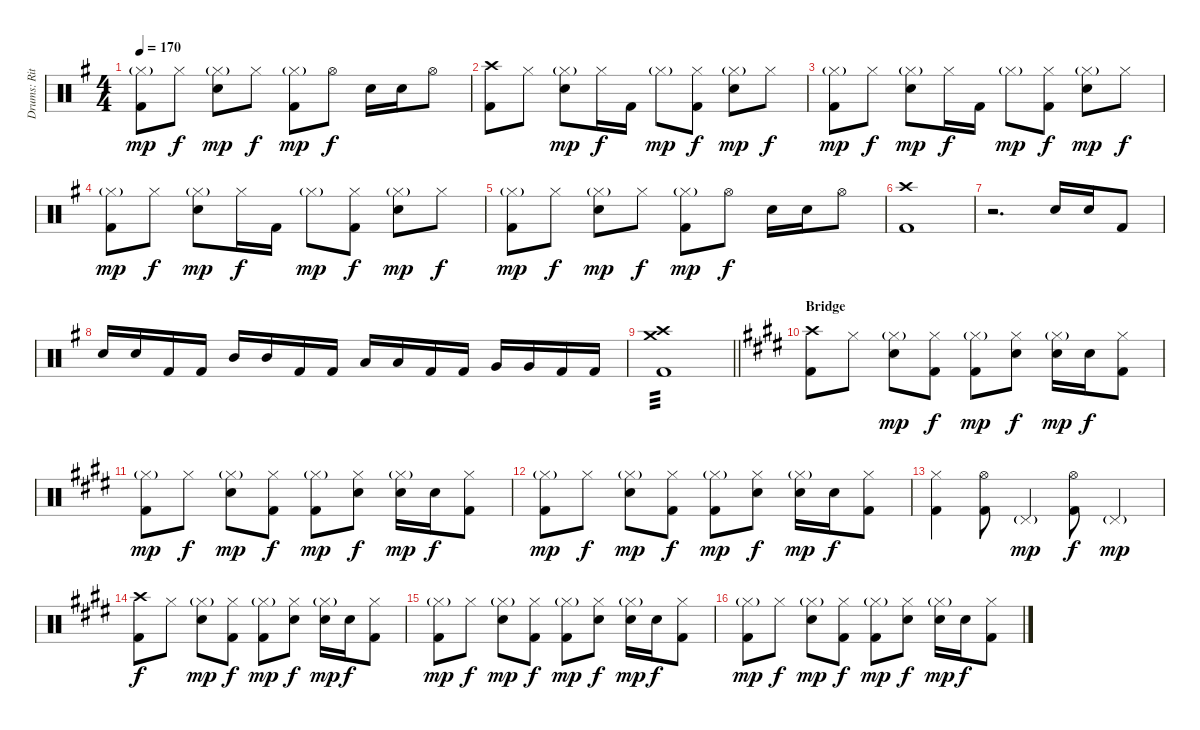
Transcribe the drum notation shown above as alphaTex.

\track ("Drums: Ritsu Tainaka" "Drums: Rit") {instrument percussion}
\staff {score}
\articulation defaults
\ts (4 4)
\tempo 170
\clef neutral
\ks eminor
("Hi-Hat (closed)"{g} "Kick (hit) 2").8{dy mp} "Hi-Hat (closed)".8{dy f} ("Hi-Hat (closed)"{g} "Electric Snare (hit)").8{dy mp} "Hi-Hat (closed)".8{dy f} ("Hi-Hat (closed)"{g} "Kick (hit) 2").8{dy mp} "Hi-Hat (open)".8{dy f} "Electric Snare (hit)".16 "Electric Snare (hit)".16 "Hi-Hat (open)".8 |
("Crash high (hit)" "Kick (hit) 2").8 "Hi-Hat (closed)".8 ("Hi-Hat (closed)"{g} "Electric Snare (hit)").8{dy mp} "Hi-Hat (closed)".16{dy f} "Kick (hit) 2".16 "Hi-Hat (closed)"{g}.8{dy mp} ("Hi-Hat (closed)" "Kick (hit) 2").8{dy f} ("Hi-Hat (closed)"{g} "Electric Snare (hit)").8{dy mp} "Hi-Hat (closed)".8{dy f} |
("Hi-Hat (closed)"{g} "Kick (hit) 2").8{dy mp} "Hi-Hat (closed)".8{dy f} ("Hi-Hat (closed)"{g} "Electric Snare (hit)").8{dy mp} "Hi-Hat (closed)".16{dy f} "Kick (hit) 2".16 "Hi-Hat (closed)"{g}.8{dy mp} ("Hi-Hat (closed)" "Kick (hit) 2").8{dy f} ("Hi-Hat (closed)"{g} "Electric Snare (hit)").8{dy mp} "Hi-Hat (closed)".8{dy f} |
("Hi-Hat (closed)"{g} "Kick (hit) 2").8{dy mp} "Hi-Hat (closed)".8{dy f} ("Hi-Hat (closed)"{g} "Electric Snare (hit)").8{dy mp} "Hi-Hat (closed)".16{dy f} "Kick (hit) 2".16 "Hi-Hat (closed)"{g}.8{dy mp} ("Hi-Hat (closed)" "Kick (hit) 2").8{dy f} ("Hi-Hat (closed)"{g} "Electric Snare (hit)").8{dy mp} "Hi-Hat (closed)".8{dy f} |
("Hi-Hat (closed)"{g} "Kick (hit) 2").8{dy mp} "Hi-Hat (closed)".8{dy f} ("Hi-Hat (closed)"{g} "Electric Snare (hit)").8{dy mp} "Hi-Hat (closed)".8{dy f} ("Hi-Hat (closed)"{g} "Kick (hit) 2").8{dy mp} "Hi-Hat (open)".8{dy f} "Electric Snare (hit)".16 "Electric Snare (hit)".16 "Hi-Hat (open)".8 |
("Crash high (hit)" "Kick (hit) 2").1 |
r.2{d} "Electric Snare (hit)".16 "Electric Snare (hit)".16 "Kick (hit) 2".8 |
"Electric Snare (hit)".16 "Electric Snare (hit)".16 "Kick (hit) 2".16 "Kick (hit) 2".16 "Mid Tom (hit)".16 "Mid Tom (hit)".16 "Kick (hit) 2".16 "Kick (hit) 2".16 "Low Tom (hit)".16 "Low Tom (hit)".16 "Kick (hit) 2".16 "Kick (hit) 2".16 "Very Low Tom (hit)".16 "Very Low Tom (hit)".16 "Kick (hit) 2".16 "Kick (hit) 2".16 |
\barLineRight lightlight
("Crash high (hit)" "Crash medium (hit)" "Kick (hit) 2").1{tp 3} |
\section ("" "Bridge")
\ks e
("Crash high (hit)" "Kick (hit) 2").8 "Hi-Hat (closed)".8 ("Hi-Hat (closed)"{g} "Electric Snare (hit)").8{dy mp} ("Hi-Hat (closed)" "Kick (hit) 2").8{dy f} ("Hi-Hat (closed)"{g} "Kick (hit) 2").8{dy mp} ("Hi-Hat (closed)" "Electric Snare (hit)").8{dy f} ("Hi-Hat (closed)"{g} "Electric Snare (hit)").16{dy mp} "Electric Snare (hit)".16{dy f} ("Hi-Hat (closed)" "Kick (hit) 2").8 |
("Hi-Hat (closed)"{g} "Kick (hit) 2").8{dy mp} "Hi-Hat (closed)".8{dy f} ("Hi-Hat (closed)"{g} "Electric Snare (hit)").8{dy mp} ("Hi-Hat (closed)" "Kick (hit) 2").8{dy f} ("Hi-Hat (closed)"{g} "Kick (hit) 2").8{dy mp} ("Hi-Hat (closed)" "Electric Snare (hit)").8{dy f} ("Hi-Hat (closed)"{g} "Electric Snare (hit)").16{dy mp} "Electric Snare (hit)".16{dy f} ("Hi-Hat (closed)" "Kick (hit) 2").8 |
("Hi-Hat (closed)"{g} "Kick (hit) 2").8{dy mp} "Hi-Hat (closed)".8{dy f} ("Hi-Hat (closed)"{g} "Electric Snare (hit)").8{dy mp} ("Hi-Hat (closed)" "Kick (hit) 2").8{dy f} ("Hi-Hat (closed)"{g} "Kick (hit) 2").8{dy mp} ("Hi-Hat (closed)" "Electric Snare (hit)").8{dy f} ("Hi-Hat (closed)"{g} "Electric Snare (hit)").16{dy mp} "Electric Snare (hit)".16{dy f} ("Hi-Hat (closed)" "Kick (hit) 2").8 |
("Hi-Hat (closed)" "Kick (hit) 2").4 ("Hi-Hat (open)" "Kick (hit) 2").8 "Pedal Hi-Hat (hit)"{g}.4{dy mp} ("Hi-Hat (open)" "Kick (hit) 2").8{dy f} "Pedal Hi-Hat (hit)"{g}.4{dy mp} |
("Crash high (hit)" "Kick (hit) 2").8{dy f} "Hi-Hat (closed)".8 ("Hi-Hat (closed)"{g} "Electric Snare (hit)").8{dy mp} ("Hi-Hat (closed)" "Kick (hit) 2").8{dy f} ("Hi-Hat (closed)"{g} "Kick (hit) 2").8{dy mp} ("Hi-Hat (closed)" "Electric Snare (hit)").8{dy f} ("Hi-Hat (closed)"{g} "Electric Snare (hit)").16{dy mp} "Electric Snare (hit)".16{dy f} ("Hi-Hat (closed)" "Kick (hit) 2").8 |
("Hi-Hat (closed)"{g} "Kick (hit) 2").8{dy mp} "Hi-Hat (closed)".8{dy f} ("Hi-Hat (closed)"{g} "Electric Snare (hit)").8{dy mp} ("Hi-Hat (closed)" "Kick (hit) 2").8{dy f} ("Hi-Hat (closed)"{g} "Kick (hit) 2").8{dy mp} ("Hi-Hat (closed)" "Electric Snare (hit)").8{dy f} ("Hi-Hat (closed)"{g} "Electric Snare (hit)").16{dy mp} "Electric Snare (hit)".16{dy f} ("Hi-Hat (closed)" "Kick (hit) 2").8 |
("Hi-Hat (closed)"{g} "Kick (hit) 2").8{dy mp} "Hi-Hat (closed)".8{dy f} ("Hi-Hat (closed)"{g} "Electric Snare (hit)").8{dy mp} ("Hi-Hat (closed)" "Kick (hit) 2").8{dy f} ("Hi-Hat (closed)"{g} "Kick (hit) 2").8{dy mp} ("Hi-Hat (closed)" "Electric Snare (hit)").8{dy f} ("Hi-Hat (closed)"{g} "Electric Snare (hit)").16{dy mp} "Electric Snare (hit)".16{dy f} ("Hi-Hat (closed)" "Kick (hit) 2").8
